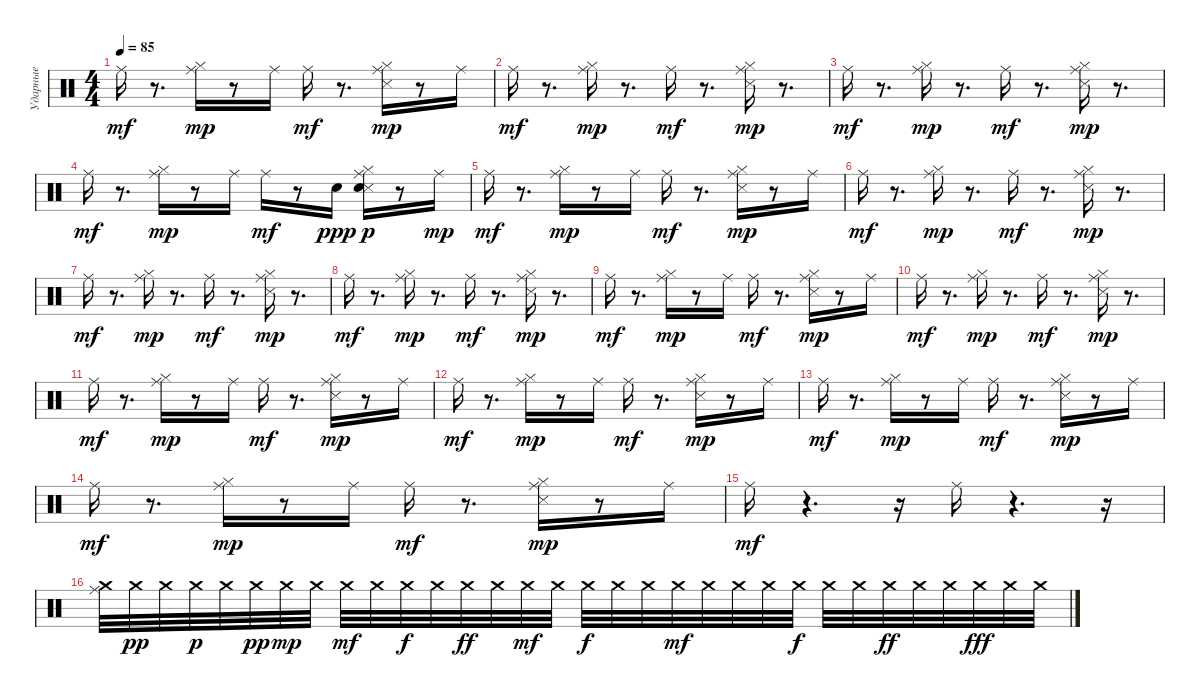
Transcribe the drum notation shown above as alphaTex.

\track ("Ударные" "Ударные") {instrument percussion}
\staff {score}
\articulation defaults
\ts (4 4)
\tempo 85
\clef neutral
\ks c "Ride (middle)".16{dy mf}
r.8{d} ("Ride (middle)" "Hi-Hat (closed)").16{dy mp} r.8 "Ride (middle)".16 "Ride (middle)".16{dy mf} r.8{d} ("Ride (middle)" "Snare (side stick) 3" "Hi-Hat (closed)").16{dy mp} r.8 "Ride (middle)".16 |
"Ride (middle)".16{dy mf} r.8{d} ("Ride (middle)" "Hi-Hat (closed)").16{dy mp} r.8{d} "Ride (middle)".16{dy mf} r.8{d} ("Ride (middle)" "Snare (side stick) 3" "Hi-Hat (closed)").16{dy mp} r.8{d} |
"Ride (middle)".16{dy mf} r.8{d} ("Ride (middle)" "Hi-Hat (closed)").16{dy mp} r.8{d} "Ride (middle)".16{dy mf} r.8{d} ("Ride (middle)" "Snare (side stick) 3" "Hi-Hat (closed)").16{dy mp} r.8{d} |
"Ride (middle)".16{dy mf} r.8{d} ("Ride (middle)" "Hi-Hat (closed)").16{dy mp} r.8 "Ride (middle)".16 "Ride (middle)".16{dy mf} r.8 "Snare (hit) 2".16{dy ppp} ("Ride (middle)" "Snare (side stick) 3" "Hi-Hat (closed)" "Snare (hit) 2").16{dy p} r.8 "Ride (middle)".16{dy mp} |
"Ride (middle)".16{dy mf} r.8{d} ("Ride (middle)" "Hi-Hat (closed)").16{dy mp} r.8 "Ride (middle)".16 "Ride (middle)".16{dy mf} r.8{d} ("Ride (middle)" "Snare (side stick) 3" "Hi-Hat (closed)").16{dy mp} r.8 "Ride (middle)".16 |
"Ride (middle)".16{dy mf} r.8{d} ("Ride (middle)" "Hi-Hat (closed)").16{dy mp} r.8{d} "Ride (middle)".16{dy mf} r.8{d} ("Ride (middle)" "Snare (side stick) 3" "Hi-Hat (closed)").16{dy mp} r.8{d} |
"Ride (middle)".16{dy mf} r.8{d} ("Ride (middle)" "Hi-Hat (closed)").16{dy mp} r.8{d} "Ride (middle)".16{dy mf} r.8{d} ("Ride (middle)" "Snare (side stick) 3" "Hi-Hat (closed)").16{dy mp} r.8{d} |
"Ride (middle)".16{dy mf} r.8{d} ("Ride (middle)" "Hi-Hat (closed)").16{dy mp} r.8{d} "Ride (middle)".16{dy mf} r.8{d} ("Ride (middle)" "Snare (side stick) 3" "Hi-Hat (closed)").16{dy mp} r.8{d} |
"Ride (middle)".16{dy mf} r.8{d} ("Ride (middle)" "Hi-Hat (closed)").16{dy mp} r.8 "Ride (middle)".16 "Ride (middle)".16{dy mf} r.8{d} ("Ride (middle)" "Snare (side stick) 3" "Hi-Hat (closed)").16{dy mp} r.8 "Ride (middle)".16 |
"Ride (middle)".16{dy mf} r.8{d} ("Ride (middle)" "Hi-Hat (closed)").16{dy mp} r.8{d} "Ride (middle)".16{dy mf} r.8{d} ("Ride (middle)" "Snare (side stick) 3" "Hi-Hat (closed)").16{dy mp} r.8{d} |
"Ride (middle)".16{dy mf} r.8{d} ("Ride (middle)" "Hi-Hat (closed)").16{dy mp} r.8 "Ride (middle)".16 "Ride (middle)".16{dy mf} r.8{d} ("Ride (middle)" "Snare (side stick) 3" "Hi-Hat (closed)").16{dy mp} r.8 "Ride (middle)".16 |
"Ride (middle)".16{dy mf} r.8{d} ("Ride (middle)" "Hi-Hat (closed)").16{dy mp} r.8 "Ride (middle)".16 "Ride (middle)".16{dy mf} r.8{d} ("Ride (middle)" "Snare (side stick) 3" "Hi-Hat (closed)").16{dy mp} r.8 "Ride (middle)".16 |
"Ride (middle)".16{dy mf} r.8{d} ("Ride (middle)" "Hi-Hat (closed)").16{dy mp} r.8 "Ride (middle)".16 "Ride (middle)".16{dy mf} r.8{d} ("Ride (middle)" "Snare (side stick) 3" "Hi-Hat (closed)").16{dy mp} r.8 "Ride (middle)".16 |
"Ride (middle)".16{dy mf} r.8{d} ("Ride (middle)" "Hi-Hat (closed)").16{dy mp} r.8 "Ride (middle)".16 "Ride (middle)".16{dy mf} r.8{d} ("Ride (middle)" "Snare (side stick) 3" "Hi-Hat (closed)").16{dy mp} r.8 "Ride (middle)".16 |
"Ride (middle)".16{dy mf} r.4{d} r.16 "Ride (middle)".16 r.4{d} r.16 |
("Ride (middle)" "Crash medium (hit)").32 "Crash medium (hit)".32{dy pp} "Crash medium (hit)".32 "Crash medium (hit)".32{dy p} "Crash medium (hit)".32 "Crash medium (hit)".32{dy pp} "Crash medium (hit)".32{dy mp} "Crash medium (hit)".32 "Crash medium (hit)".32{dy mf} "Crash medium (hit)".32 "Crash medium (hit)".32{dy f} "Crash medium (hit)".32 "Crash medium (hit)".32{dy ff} "Crash medium (hit)".32 "Crash medium (hit)".32{dy mf} "Crash medium (hit)".32 "Crash medium (hit)".32{dy f} "Crash medium (hit)".32 "Crash medium (hit)".32 "Crash medium (hit)".32{dy mf} "Crash medium (hit)".32 "Crash medium (hit)".32 "Crash medium (hit)".32 "Crash medium (hit)".32{dy f} "Crash medium (hit)".32 "Crash medium (hit)".32 "Crash medium (hit)".32{dy ff} "Crash medium (hit)".32 "Crash medium (hit)".32 "Crash medium (hit)".32{dy fff} "Crash medium (hit)".32 "Crash medium (hit)".32
